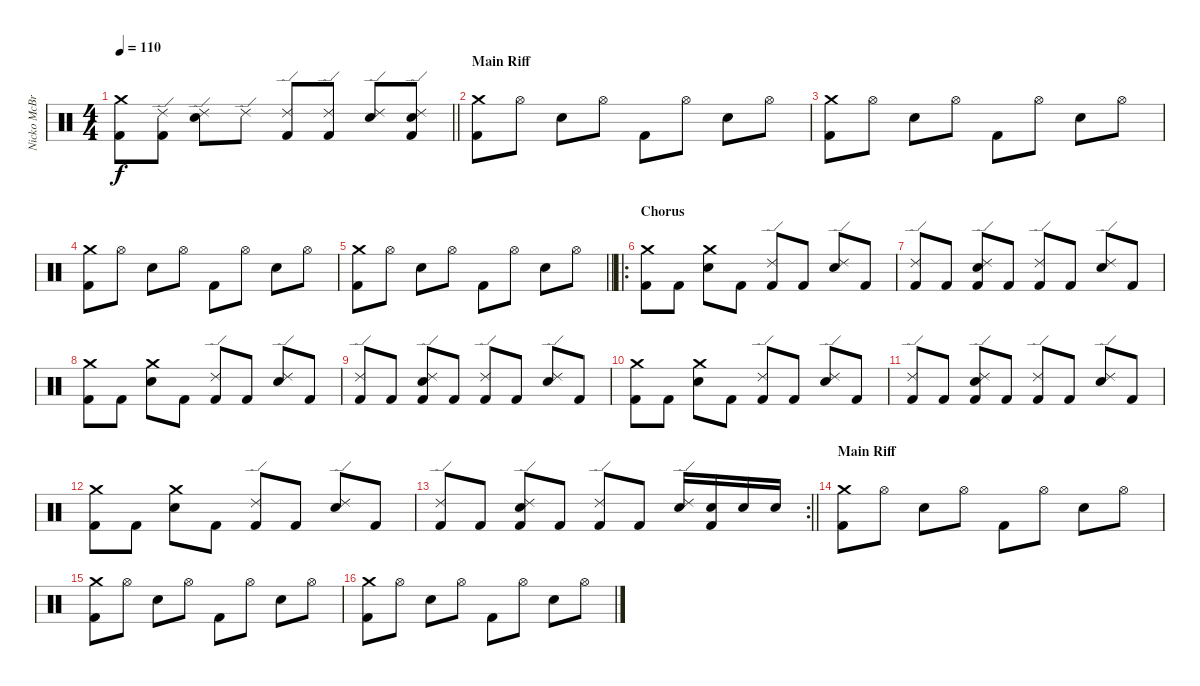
\track ("Nicko McBrain" "Nicko McBr") {instrument percussion}
\staff {score}
\articulation defaults
\ts (4 4)
\tempo 110
\clef neutral
\barLineRight lightlight
\ks c
("Crash medium (hit)" "Kick (hit) 2").8{dy f} ("Ride (edge) 2" "Kick (hit) 2").8 ("Snare (hit) 2" "Ride (edge) 2").8 "Ride (edge) 2".8 ("Ride (edge) 2" "Kick (hit) 2").8 ("Ride (edge) 2" "Kick (hit) 2").8 ("Snare (hit) 2" "Ride (edge) 2").8 ("Snare (hit) 2" "Ride (edge) 2" "Kick (hit) 2").8 |
\section ("" "Main Riff")
("Crash medium (hit)" "Kick (hit) 2").8 "Hi-Hat (open)".8 "Snare (hit) 2".8 "Hi-Hat (open)".8 "Kick (hit) 2".8 "Hi-Hat (open)".8 "Snare (hit) 2".8 "Hi-Hat (open)".8 |
("Crash medium (hit)" "Kick (hit) 2").8 "Hi-Hat (open)".8 "Snare (hit) 2".8 "Hi-Hat (open)".8 "Kick (hit) 2".8 "Hi-Hat (open)".8 "Snare (hit) 2".8 "Hi-Hat (open)".8 |
("Crash medium (hit)" "Kick (hit) 2").8 "Hi-Hat (open)".8 "Snare (hit) 2".8 "Hi-Hat (open)".8 "Kick (hit) 2".8 "Hi-Hat (open)".8 "Snare (hit) 2".8 "Hi-Hat (open)".8 |
\barLineRight lightlight
("Crash medium (hit)" "Kick (hit) 2").8 "Hi-Hat (open)".8 "Snare (hit) 2".8 "Hi-Hat (open)".8 "Kick (hit) 2".8 "Hi-Hat (open)".8 "Snare (hit) 2".8 "Hi-Hat (open)".8 |
\ro
\section ("" "Chorus")
("Crash medium (hit)" "Kick (hit) 2").8 "Kick (hit) 2".8 ("Snare (hit) 2" "Crash medium (hit)").8 "Kick (hit) 2".8 ("Ride (edge) 2" "Kick (hit) 2").8 "Kick (hit) 2".8 ("Snare (hit) 2" "Ride (edge) 2").8 "Kick (hit) 2".8 |
("Ride (edge) 2" "Kick (hit) 2").8 "Kick (hit) 2".8 ("Snare (hit) 2" "Ride (edge) 2" "Kick (hit) 2").8 "Kick (hit) 2".8 ("Ride (edge) 2" "Kick (hit) 2").8 "Kick (hit) 2".8 ("Snare (hit) 2" "Ride (edge) 2").8 "Kick (hit) 2".8 |
("Crash medium (hit)" "Kick (hit) 2").8 "Kick (hit) 2".8 ("Snare (hit) 2" "Crash medium (hit)").8 "Kick (hit) 2".8 ("Ride (edge) 2" "Kick (hit) 2").8 "Kick (hit) 2".8 ("Snare (hit) 2" "Ride (edge) 2").8 "Kick (hit) 2".8 |
("Ride (edge) 2" "Kick (hit) 2").8 "Kick (hit) 2".8 ("Snare (hit) 2" "Ride (edge) 2" "Kick (hit) 2").8 "Kick (hit) 2".8 ("Ride (edge) 2" "Kick (hit) 2").8 "Kick (hit) 2".8 ("Snare (hit) 2" "Ride (edge) 2").8 "Kick (hit) 2".8 |
("Crash medium (hit)" "Kick (hit) 2").8 "Kick (hit) 2".8 ("Snare (hit) 2" "Crash medium (hit)").8 "Kick (hit) 2".8 ("Ride (edge) 2" "Kick (hit) 2").8 "Kick (hit) 2".8 ("Snare (hit) 2" "Ride (edge) 2").8 "Kick (hit) 2".8 |
("Ride (edge) 2" "Kick (hit) 2").8 "Kick (hit) 2".8 ("Snare (hit) 2" "Ride (edge) 2" "Kick (hit) 2").8 "Kick (hit) 2".8 ("Ride (edge) 2" "Kick (hit) 2").8 "Kick (hit) 2".8 ("Snare (hit) 2" "Ride (edge) 2").8 "Kick (hit) 2".8 |
("Crash medium (hit)" "Kick (hit) 2").8 "Kick (hit) 2".8 ("Snare (hit) 2" "Crash medium (hit)").8 "Kick (hit) 2".8 ("Ride (edge) 2" "Kick (hit) 2").8 "Kick (hit) 2".8 ("Snare (hit) 2" "Ride (edge) 2").8 "Kick (hit) 2".8 |
\rc 2
\barLineRight lightlight
("Ride (edge) 2" "Kick (hit) 2").8 "Kick (hit) 2".8 ("Snare (hit) 2" "Ride (edge) 2" "Kick (hit) 2").8 "Kick (hit) 2".8 ("Ride (edge) 2" "Kick (hit) 2").8 "Kick (hit) 2".8 ("Snare (hit) 2" "Ride (edge) 2").16 ("Snare (hit) 2" "Kick (hit) 2").16 "Snare (hit) 2".16 "Snare (hit) 2".16 |
\section ("" "Main Riff")
("Crash medium (hit)" "Kick (hit) 2").8 "Hi-Hat (open)".8 "Snare (hit) 2".8 "Hi-Hat (open)".8 "Kick (hit) 2".8 "Hi-Hat (open)".8 "Snare (hit) 2".8 "Hi-Hat (open)".8 |
("Crash medium (hit)" "Kick (hit) 2").8 "Hi-Hat (open)".8 "Snare (hit) 2".8 "Hi-Hat (open)".8 "Kick (hit) 2".8 "Hi-Hat (open)".8 "Snare (hit) 2".8 "Hi-Hat (open)".8 |
("Crash medium (hit)" "Kick (hit) 2").8 "Hi-Hat (open)".8 "Snare (hit) 2".8 "Hi-Hat (open)".8 "Kick (hit) 2".8 "Hi-Hat (open)".8 "Snare (hit) 2".8 "Hi-Hat (open)".8
